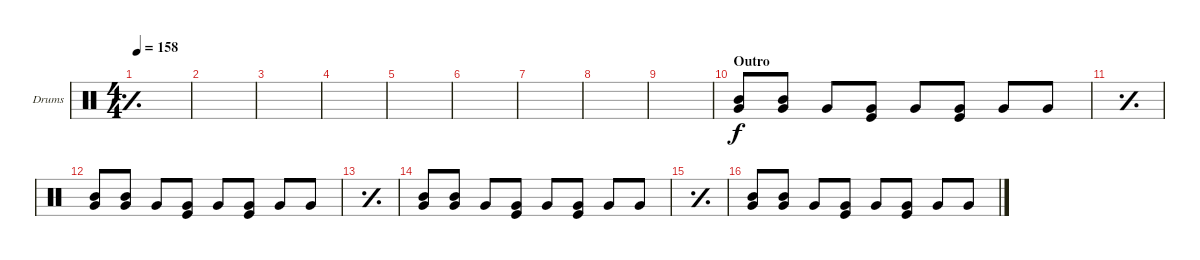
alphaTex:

\defaultSystemsLayout 4
\bracketExtendMode groupsimilarinstruments
\firstSystemTrackNameOrientation horizontal
\otherSystemsTrackNameOrientation horizontal
\track ("Drums" "Drums") {instrument percussion}
\staff {score}
\articulation defaults
\ts (4 4)
\tempo 158
\clef neutral
\simile simple
\ks c
|
|
|
|
|
|
|
|
|
\section ("" "Outro")
("Very Low Tom (hit)" "Mid Tom (hit)").8 ("Very Low Tom (hit)" "Mid Tom (hit)").8 "Very Low Tom (hit)".8 ("Kick (hit)" "Very Low Tom (hit)").8 "Very Low Tom (hit)".8 ("Kick (hit)" "Very Low Tom (hit)").8 "Very Low Tom (hit)".8 "Very Low Tom (hit)".8 |
\simile simple
|
\simile none
("Very Low Tom (hit)" "Mid Tom (hit)").8 ("Very Low Tom (hit)" "Mid Tom (hit)").8 "Very Low Tom (hit)".8 ("Kick (hit)" "Very Low Tom (hit)").8 "Very Low Tom (hit)".8 ("Kick (hit)" "Very Low Tom (hit)").8 "Very Low Tom (hit)".8 "Very Low Tom (hit)".8 |
\simile simple
|
\simile none
("Very Low Tom (hit)" "Mid Tom (hit)").8 ("Very Low Tom (hit)" "Mid Tom (hit)").8 "Very Low Tom (hit)".8 ("Kick (hit)" "Very Low Tom (hit)").8 "Very Low Tom (hit)".8 ("Kick (hit)" "Very Low Tom (hit)").8 "Very Low Tom (hit)".8 "Very Low Tom (hit)".8 |
\simile simple
|
\simile none
("Very Low Tom (hit)" "Mid Tom (hit)").8 ("Very Low Tom (hit)" "Mid Tom (hit)").8 "Very Low Tom (hit)".8 ("Kick (hit)" "Very Low Tom (hit)").8 "Very Low Tom (hit)".8 ("Kick (hit)" "Very Low Tom (hit)").8 "Very Low Tom (hit)".8 "Very Low Tom (hit)".8
